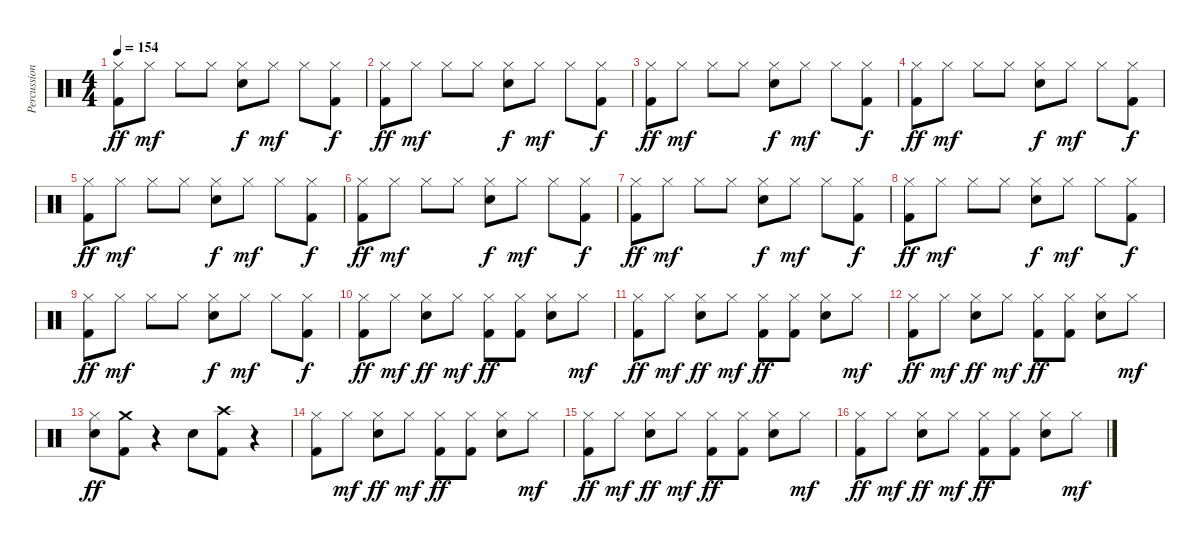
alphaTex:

\track ("Percussions" "Percussion") {instrument percussion}
\staff {score}
\articulation defaults
\ts (4 4)
\tempo 154
\clef neutral
\ks c
("Hi-Hat (closed)" "Kick (hit) 2").8{dy ff} "Hi-Hat (closed)".8{dy mf} "Hi-Hat (closed)".8 "Hi-Hat (closed)".8 ("Hi-Hat (closed)" "Electric Snare (hit)").8{dy f} "Hi-Hat (closed)".8{dy mf} "Hi-Hat (closed)".8 ("Hi-Hat (closed)" "Kick (hit) 2").8{dy f} |
("Hi-Hat (closed)" "Kick (hit) 2").8{dy ff} "Hi-Hat (closed)".8{dy mf} "Hi-Hat (closed)".8 "Hi-Hat (closed)".8 ("Hi-Hat (closed)" "Electric Snare (hit)").8{dy f} "Hi-Hat (closed)".8{dy mf} "Hi-Hat (closed)".8 ("Hi-Hat (closed)" "Kick (hit) 2").8{dy f} |
("Hi-Hat (closed)" "Kick (hit) 2").8{dy ff} "Hi-Hat (closed)".8{dy mf} "Hi-Hat (closed)".8 "Hi-Hat (closed)".8 ("Hi-Hat (closed)" "Electric Snare (hit)").8{dy f} "Hi-Hat (closed)".8{dy mf} "Hi-Hat (closed)".8 ("Hi-Hat (closed)" "Kick (hit) 2").8{dy f} |
("Hi-Hat (closed)" "Kick (hit) 2").8{dy ff} "Hi-Hat (closed)".8{dy mf} "Hi-Hat (closed)".8 "Hi-Hat (closed)".8 ("Hi-Hat (closed)" "Electric Snare (hit)").8{dy f} "Hi-Hat (closed)".8{dy mf} "Hi-Hat (closed)".8 ("Hi-Hat (closed)" "Kick (hit) 2").8{dy f} |
("Hi-Hat (closed)" "Kick (hit) 2").8{dy ff} "Hi-Hat (closed)".8{dy mf} "Hi-Hat (closed)".8 "Hi-Hat (closed)".8 ("Hi-Hat (closed)" "Electric Snare (hit)").8{dy f} "Hi-Hat (closed)".8{dy mf} "Hi-Hat (closed)".8 ("Hi-Hat (closed)" "Kick (hit) 2").8{dy f} |
("Hi-Hat (closed)" "Kick (hit) 2").8{dy ff} "Hi-Hat (closed)".8{dy mf} "Hi-Hat (closed)".8 "Hi-Hat (closed)".8 ("Hi-Hat (closed)" "Electric Snare (hit)").8{dy f} "Hi-Hat (closed)".8{dy mf} "Hi-Hat (closed)".8 ("Hi-Hat (closed)" "Kick (hit) 2").8{dy f} |
("Hi-Hat (closed)" "Kick (hit) 2").8{dy ff} "Hi-Hat (closed)".8{dy mf} "Hi-Hat (closed)".8 "Hi-Hat (closed)".8 ("Hi-Hat (closed)" "Electric Snare (hit)").8{dy f} "Hi-Hat (closed)".8{dy mf} "Hi-Hat (closed)".8 ("Hi-Hat (closed)" "Kick (hit) 2").8{dy f} |
("Hi-Hat (closed)" "Kick (hit) 2").8{dy ff} "Hi-Hat (closed)".8{dy mf} "Hi-Hat (closed)".8 "Hi-Hat (closed)".8 ("Hi-Hat (closed)" "Electric Snare (hit)").8{dy f} "Hi-Hat (closed)".8{dy mf} "Hi-Hat (closed)".8 ("Hi-Hat (closed)" "Kick (hit) 2").8{dy f} |
("Hi-Hat (closed)" "Kick (hit) 2").8{dy ff} "Hi-Hat (closed)".8{dy mf} "Hi-Hat (closed)".8 "Hi-Hat (closed)".8 ("Hi-Hat (closed)" "Electric Snare (hit)").8{dy f} "Hi-Hat (closed)".8{dy mf} "Hi-Hat (closed)".8 ("Hi-Hat (closed)" "Kick (hit) 2").8{dy f} |
("Hi-Hat (closed)" "Kick (hit) 2").8{dy ff} "Hi-Hat (closed)".8{dy mf} ("Hi-Hat (closed)" "Electric Snare (hit)").8{dy ff} "Hi-Hat (closed)".8{dy mf} ("Hi-Hat (closed)" "Kick (hit) 2").8{dy ff} ("Hi-Hat (closed)" "Kick (hit) 2").8 ("Hi-Hat (closed)" "Electric Snare (hit)").8 "Hi-Hat (closed)".8{dy mf} |
("Hi-Hat (closed)" "Kick (hit) 2").8{dy ff} "Hi-Hat (closed)".8{dy mf} ("Hi-Hat (closed)" "Electric Snare (hit)").8{dy ff} "Hi-Hat (closed)".8{dy mf} ("Hi-Hat (closed)" "Kick (hit) 2").8{dy ff} ("Hi-Hat (closed)" "Kick (hit) 2").8 ("Hi-Hat (closed)" "Electric Snare (hit)").8 "Hi-Hat (closed)".8{dy mf} |
("Hi-Hat (closed)" "Kick (hit) 2").8{dy ff} "Hi-Hat (closed)".8{dy mf} ("Hi-Hat (closed)" "Electric Snare (hit)").8{dy ff} "Hi-Hat (closed)".8{dy mf} ("Hi-Hat (closed)" "Kick (hit) 2").8{dy ff} ("Hi-Hat (closed)" "Kick (hit) 2").8 ("Hi-Hat (closed)" "Electric Snare (hit)").8 "Hi-Hat (closed)".8{dy mf} |
("Hi-Hat (closed)" "Electric Snare (hit)").8{dy ff} ("Crash medium (hit)" "Kick (hit) 2").8 r.4 "Electric Snare (hit)".8 ("Crash high (hit)" "Kick (hit) 2").8 r.4 |
("Hi-Hat (closed)" "Kick (hit) 2").8 "Hi-Hat (closed)".8{dy mf} ("Hi-Hat (closed)" "Electric Snare (hit)").8{dy ff} "Hi-Hat (closed)".8{dy mf} ("Hi-Hat (closed)" "Kick (hit) 2").8{dy ff} ("Hi-Hat (closed)" "Kick (hit) 2").8 ("Hi-Hat (closed)" "Electric Snare (hit)").8 "Hi-Hat (closed)".8{dy mf} |
("Hi-Hat (closed)" "Kick (hit) 2").8{dy ff} "Hi-Hat (closed)".8{dy mf} ("Hi-Hat (closed)" "Electric Snare (hit)").8{dy ff} "Hi-Hat (closed)".8{dy mf} ("Hi-Hat (closed)" "Kick (hit) 2").8{dy ff} ("Hi-Hat (closed)" "Kick (hit) 2").8 ("Hi-Hat (closed)" "Electric Snare (hit)").8 "Hi-Hat (closed)".8{dy mf} |
("Hi-Hat (closed)" "Kick (hit) 2").8{dy ff} "Hi-Hat (closed)".8{dy mf} ("Hi-Hat (closed)" "Electric Snare (hit)").8{dy ff} "Hi-Hat (closed)".8{dy mf} ("Hi-Hat (closed)" "Kick (hit) 2").8{dy ff} ("Hi-Hat (closed)" "Kick (hit) 2").8 ("Hi-Hat (closed)" "Electric Snare (hit)").8 "Hi-Hat (closed)".8{dy mf}
